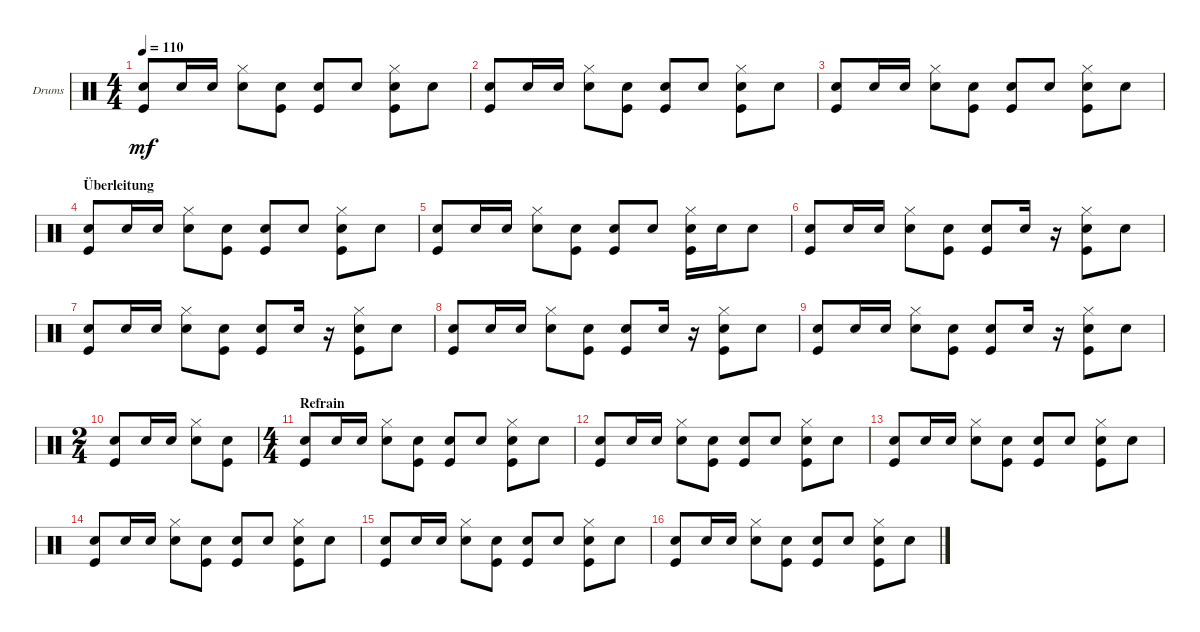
\bracketExtendMode groupsimilarinstruments
\firstSystemTrackNameOrientation horizontal
\otherSystemsTrackNameOrientation horizontal
\track ("Drumkit" "Drums") {instrument percussion}
\staff {score}
\articulation defaults
\ts (4 4)
\tempo 110
\clef neutral
\scale
0.333333
\ks c
("Kick (hit)" "Snare (hit) 2").8{dy mf} "Snare (hit) 2".16 "Snare (hit) 2".16 ("Snare (hit) 2" "Hi-Hat (closed)").8 ("Kick (hit)" "Snare (hit) 2").8 ("Kick (hit)" "Snare (hit) 2").8 "Snare (hit) 2".8 ("Kick (hit)" "Snare (hit) 2" "Hi-Hat (closed)").8 "Snare (hit) 2".8 |
("Kick (hit)" "Snare (hit) 2").8 "Snare (hit) 2".16 "Snare (hit) 2".16 ("Snare (hit) 2" "Hi-Hat (closed)").8 ("Kick (hit)" "Snare (hit) 2").8 ("Kick (hit)" "Snare (hit) 2").8 "Snare (hit) 2".8 ("Kick (hit)" "Snare (hit) 2" "Hi-Hat (closed)").8 "Snare (hit) 2".8 |
("Kick (hit)" "Snare (hit) 2").8 "Snare (hit) 2".16 "Snare (hit) 2".16 ("Snare (hit) 2" "Hi-Hat (closed)").8 ("Kick (hit)" "Snare (hit) 2").8 ("Kick (hit)" "Snare (hit) 2").8 "Snare (hit) 2".8 ("Kick (hit)" "Snare (hit) 2" "Hi-Hat (closed)").8 "Snare (hit) 2".8 |
\section ("" "Überleitung")
\scale
0.333333 ("Kick (hit)" "Snare (hit) 2").8 "Snare (hit) 2".16 "Snare (hit) 2".16 ("Snare (hit) 2" "Hi-Hat (closed)").8 ("Kick (hit)" "Snare (hit) 2").8 ("Kick (hit)" "Snare (hit) 2").8 "Snare (hit) 2".8 ("Kick (hit)" "Snare (hit) 2" "Hi-Hat (closed)").8 "Snare (hit) 2".8 |
\scale
0.333333 ("Kick (hit)" "Snare (hit) 2").8 "Snare (hit) 2".16 "Snare (hit) 2".16 ("Snare (hit) 2" "Hi-Hat (closed)").8 ("Kick (hit)" "Snare (hit) 2").8 ("Kick (hit)" "Snare (hit) 2").8 "Snare (hit) 2".8 ("Kick (hit)" "Snare (hit) 2" "Hi-Hat (closed)").16 "Snare (hit) 2".16 "Snare (hit) 2".8 |
\scale
0.333333 ("Kick (hit)" "Snare (hit) 2").8 "Snare (hit) 2".16 "Snare (hit) 2".16 ("Snare (hit) 2" "Hi-Hat (closed)").8 ("Kick (hit)" "Snare (hit) 2").8 ("Kick (hit)" "Snare (hit) 2").8 "Snare (hit) 2".16 r.16 ("Kick (hit)" "Snare (hit) 2" "Hi-Hat (closed)").8 "Snare (hit) 2".8 |
\scale
0.333333 ("Kick (hit)" "Snare (hit) 2").8 "Snare (hit) 2".16 "Snare (hit) 2".16 ("Snare (hit) 2" "Hi-Hat (closed)").8 ("Kick (hit)" "Snare (hit) 2").8 ("Kick (hit)" "Snare (hit) 2").8 "Snare (hit) 2".16 r.16 ("Kick (hit)" "Snare (hit) 2" "Hi-Hat (closed)").8 "Snare (hit) 2".8 |
\scale
0.263889 ("Kick (hit)" "Snare (hit) 2").8 "Snare (hit) 2".16 "Snare (hit) 2".16 ("Snare (hit) 2" "Hi-Hat (closed)").8 ("Kick (hit)" "Snare (hit) 2").8 ("Kick (hit)" "Snare (hit) 2").8 "Snare (hit) 2".16 r.16 ("Kick (hit)" "Snare (hit) 2" "Hi-Hat (closed)").8 "Snare (hit) 2".8 |
\scale
0.263889 ("Kick (hit)" "Snare (hit) 2").8 "Snare (hit) 2".16 "Snare (hit) 2".16 ("Snare (hit) 2" "Hi-Hat (closed)").8 ("Kick (hit)" "Snare (hit) 2").8 ("Kick (hit)" "Snare (hit) 2").8 "Snare (hit) 2".16 r.16 ("Kick (hit)" "Snare (hit) 2" "Hi-Hat (closed)").8 "Snare (hit) 2".8 |
\ts (2 4)
\scale
0.472222 ("Kick (hit)" "Snare (hit) 2").8 "Snare (hit) 2".16 "Snare (hit) 2".16 ("Snare (hit) 2" "Hi-Hat (closed)").8 ("Kick (hit)" "Snare (hit) 2").8 |
\ts (4 4)
\section ("" "Refrain")
\scale
0.472222 ("Kick (hit)" "Snare (hit) 2").8 "Snare (hit) 2".16 "Snare (hit) 2".16 ("Snare (hit) 2" "Hi-Hat (closed)").8 ("Kick (hit)" "Snare (hit) 2").8 ("Kick (hit)" "Snare (hit) 2").8 "Snare (hit) 2".8 ("Kick (hit)" "Snare (hit) 2" "Hi-Hat (closed)").8 "Snare (hit) 2".8 |
\scale
0.263889 ("Kick (hit)" "Snare (hit) 2").8 "Snare (hit) 2".16 "Snare (hit) 2".16 ("Snare (hit) 2" "Hi-Hat (closed)").8 ("Kick (hit)" "Snare (hit) 2").8 ("Kick (hit)" "Snare (hit) 2").8 "Snare (hit) 2".8 ("Kick (hit)" "Snare (hit) 2" "Hi-Hat (closed)").8 "Snare (hit) 2".8 |
\scale
0.263889 ("Kick (hit)" "Snare (hit) 2").8 "Snare (hit) 2".16 "Snare (hit) 2".16 ("Snare (hit) 2" "Hi-Hat (closed)").8 ("Kick (hit)" "Snare (hit) 2").8 ("Kick (hit)" "Snare (hit) 2").8 "Snare (hit) 2".8 ("Kick (hit)" "Snare (hit) 2" "Hi-Hat (closed)").8 "Snare (hit) 2".8 |
\scale
0.333333 ("Kick (hit)" "Snare (hit) 2").8 "Snare (hit) 2".16 "Snare (hit) 2".16 ("Snare (hit) 2" "Hi-Hat (closed)").8 ("Kick (hit)" "Snare (hit) 2").8 ("Kick (hit)" "Snare (hit) 2").8 "Snare (hit) 2".8 ("Kick (hit)" "Snare (hit) 2" "Hi-Hat (closed)").8 "Snare (hit) 2".8 |
\scale
0.333333 ("Kick (hit)" "Snare (hit) 2").8 "Snare (hit) 2".16 "Snare (hit) 2".16 ("Snare (hit) 2" "Hi-Hat (closed)").8 ("Kick (hit)" "Snare (hit) 2").8 ("Kick (hit)" "Snare (hit) 2").8 "Snare (hit) 2".8 ("Kick (hit)" "Snare (hit) 2" "Hi-Hat (closed)").8 "Snare (hit) 2".8 |
\scale
0.333333 ("Kick (hit)" "Snare (hit) 2").8 "Snare (hit) 2".16 "Snare (hit) 2".16 ("Snare (hit) 2" "Hi-Hat (closed)").8 ("Kick (hit)" "Snare (hit) 2").8 ("Kick (hit)" "Snare (hit) 2").8 "Snare (hit) 2".8 ("Kick (hit)" "Snare (hit) 2" "Hi-Hat (closed)").8 "Snare (hit) 2".8
